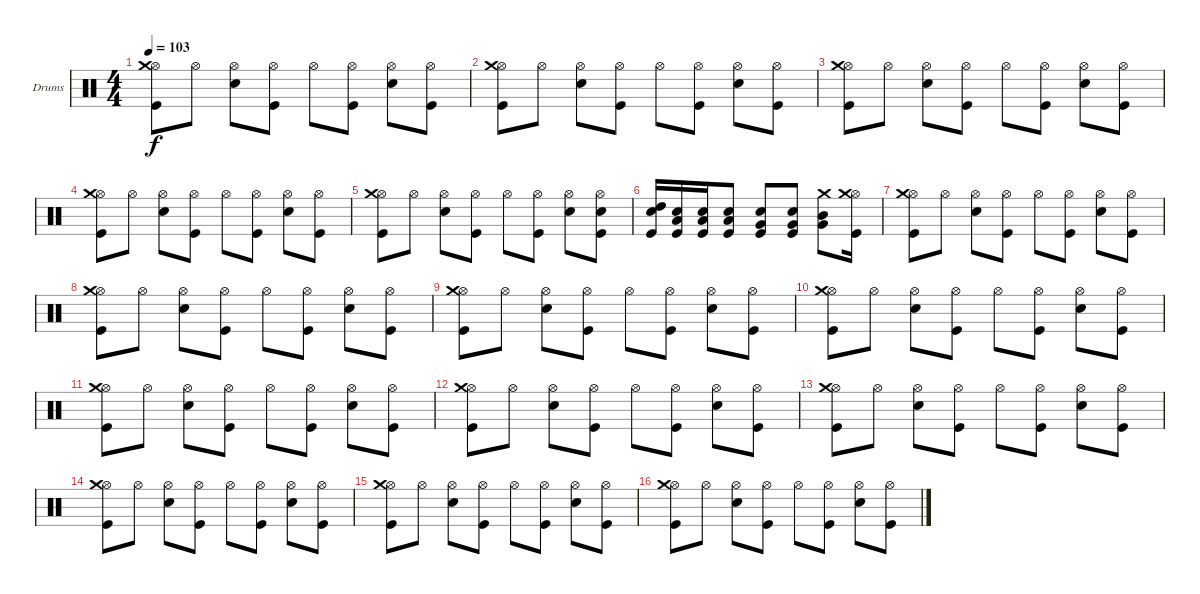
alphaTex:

\defaultSystemsLayout 4
\bracketExtendMode nobrackets
\firstSystemTrackNameOrientation horizontal
\otherSystemsTrackNameOrientation horizontal
\track ("Dave Abbruzzese" "Drums") {solo instrument percussion}
\staff {score}
\articulation defaults
\ts (4 4)
\tempo 103
\clef neutral
\ks c
("Kick (hit)" "Hi-Hat (open)" "Crash medium (hit)").8{dy f} "Hi-Hat (open)".8 ("Snare (hit) 2" "Hi-Hat (open)").8 ("Kick (hit)" "Hi-Hat (open)").8 "Hi-Hat (open)".8 ("Kick (hit)" "Hi-Hat (open)").8 ("Snare (hit) 2" "Hi-Hat (open)").8 ("Kick (hit)" "Hi-Hat (open)").8 |
("Kick (hit)" "Hi-Hat (open)" "Crash medium (hit)").8 "Hi-Hat (open)".8 ("Snare (hit) 2" "Hi-Hat (open)").8 ("Kick (hit)" "Hi-Hat (open)").8 "Hi-Hat (open)".8 ("Kick (hit)" "Hi-Hat (open)").8 ("Snare (hit) 2" "Hi-Hat (open)").8 ("Kick (hit)" "Hi-Hat (open)").8 |
("Kick (hit)" "Hi-Hat (open)" "Crash medium (hit)").8 "Hi-Hat (open)".8 ("Snare (hit) 2" "Hi-Hat (open)").8 ("Kick (hit)" "Hi-Hat (open)").8 "Hi-Hat (open)".8 ("Kick (hit)" "Hi-Hat (open)").8 ("Snare (hit) 2" "Hi-Hat (open)").8 ("Kick (hit)" "Hi-Hat (open)").8 |
("Kick (hit)" "Hi-Hat (open)" "Crash medium (hit)").8 "Hi-Hat (open)".8 ("Snare (hit) 2" "Hi-Hat (open)").8 ("Kick (hit)" "Hi-Hat (open)").8 "Hi-Hat (open)".8 ("Kick (hit)" "Hi-Hat (open)").8 ("Snare (hit) 2" "Hi-Hat (open)").8 ("Kick (hit)" "Hi-Hat (open)").8 |
("Kick (hit)" "Hi-Hat (open)" "Crash medium (hit)").8 "Hi-Hat (open)".8 ("Snare (hit) 2" "Hi-Hat (open)").8 ("Kick (hit)" "Hi-Hat (open)").8 "Hi-Hat (open)".8 ("Kick (hit)" "Hi-Hat (open)").8 ("Snare (hit) 2" "Hi-Hat (open)").8 ("Kick (hit)" "Hi-Hat (open)" "Snare (hit) 2").8 |
("Kick (hit)" "High Tom (hit)" "Snare (hit) 2").16 ("Kick (hit)" "Low Tom (hit)" "Snare (hit) 2").16 ("Kick (hit)" "Low Tom (hit)" "Snare (hit) 2").16 ("Kick (hit)" "Low Tom (hit)" "Snare (hit) 2").8 ("Kick (hit)" "Very Low Tom (hit)" "Snare (hit) 2").8 ("Kick (hit)" "Very Low Tom (hit)" "Snare (hit) 2").8 ("Very Low Tom (hit)" "Mid Tom (hit)" "Crash medium (hit)").8 ("Kick (hit)" "Hi-Hat (open)" "Crash medium (hit)").16 |
("Kick (hit)" "Hi-Hat (open)" "Crash medium (hit)").8 "Hi-Hat (open)".8 ("Snare (hit) 2" "Hi-Hat (open)").8 ("Kick (hit)" "Hi-Hat (open)").8 "Hi-Hat (open)".8 ("Kick (hit)" "Hi-Hat (open)").8 ("Snare (hit) 2" "Hi-Hat (open)").8 ("Kick (hit)" "Hi-Hat (open)").8 |
("Kick (hit)" "Hi-Hat (open)" "Crash medium (hit)").8 "Hi-Hat (open)".8 ("Snare (hit) 2" "Hi-Hat (open)").8 ("Kick (hit)" "Hi-Hat (open)").8 "Hi-Hat (open)".8 ("Kick (hit)" "Hi-Hat (open)").8 ("Snare (hit) 2" "Hi-Hat (open)").8 ("Kick (hit)" "Hi-Hat (open)").8 |
("Kick (hit)" "Hi-Hat (open)" "Crash medium (hit)").8 "Hi-Hat (open)".8 ("Snare (hit) 2" "Hi-Hat (open)").8 ("Kick (hit)" "Hi-Hat (open)").8 "Hi-Hat (open)".8 ("Kick (hit)" "Hi-Hat (open)").8 ("Snare (hit) 2" "Hi-Hat (open)").8 ("Kick (hit)" "Hi-Hat (open)").8 |
("Kick (hit)" "Hi-Hat (open)" "Crash medium (hit)").8 "Hi-Hat (open)".8 ("Snare (hit) 2" "Hi-Hat (open)").8 ("Kick (hit)" "Hi-Hat (open)").8 "Hi-Hat (open)".8 ("Kick (hit)" "Hi-Hat (open)").8 ("Snare (hit) 2" "Hi-Hat (open)").8 ("Kick (hit)" "Hi-Hat (open)").8 |
("Kick (hit)" "Hi-Hat (open)" "Crash medium (hit)").8 "Hi-Hat (open)".8 ("Snare (hit) 2" "Hi-Hat (open)").8 ("Kick (hit)" "Hi-Hat (open)").8 "Hi-Hat (open)".8 ("Kick (hit)" "Hi-Hat (open)").8 ("Snare (hit) 2" "Hi-Hat (open)").8 ("Kick (hit)" "Hi-Hat (open)").8 |
("Kick (hit)" "Hi-Hat (open)" "Crash medium (hit)").8 "Hi-Hat (open)".8 ("Snare (hit) 2" "Hi-Hat (open)").8 ("Kick (hit)" "Hi-Hat (open)").8 "Hi-Hat (open)".8 ("Kick (hit)" "Hi-Hat (open)").8 ("Snare (hit) 2" "Hi-Hat (open)").8 ("Kick (hit)" "Hi-Hat (open)").8 |
("Kick (hit)" "Hi-Hat (open)" "Crash medium (hit)").8 "Hi-Hat (open)".8 ("Snare (hit) 2" "Hi-Hat (open)").8 ("Kick (hit)" "Hi-Hat (open)").8 "Hi-Hat (open)".8 ("Kick (hit)" "Hi-Hat (open)").8 ("Snare (hit) 2" "Hi-Hat (open)").8 ("Kick (hit)" "Hi-Hat (open)").8 |
("Kick (hit)" "Hi-Hat (open)" "Crash medium (hit)").8 "Hi-Hat (open)".8 ("Snare (hit) 2" "Hi-Hat (open)").8 ("Kick (hit)" "Hi-Hat (open)").8 "Hi-Hat (open)".8 ("Kick (hit)" "Hi-Hat (open)").8 ("Snare (hit) 2" "Hi-Hat (open)").8 ("Kick (hit)" "Hi-Hat (open)").8 |
("Kick (hit)" "Hi-Hat (open)" "Crash medium (hit)").8 "Hi-Hat (open)".8 ("Snare (hit) 2" "Hi-Hat (open)").8 ("Kick (hit)" "Hi-Hat (open)").8 "Hi-Hat (open)".8 ("Kick (hit)" "Hi-Hat (open)").8 ("Snare (hit) 2" "Hi-Hat (open)").8 ("Kick (hit)" "Hi-Hat (open)").8 |
("Kick (hit)" "Hi-Hat (open)" "Crash medium (hit)").8 "Hi-Hat (open)".8 ("Snare (hit) 2" "Hi-Hat (open)").8 ("Kick (hit)" "Hi-Hat (open)").8 "Hi-Hat (open)".8 ("Kick (hit)" "Hi-Hat (open)").8 ("Snare (hit) 2" "Hi-Hat (open)").8 ("Kick (hit)" "Hi-Hat (open)").8
